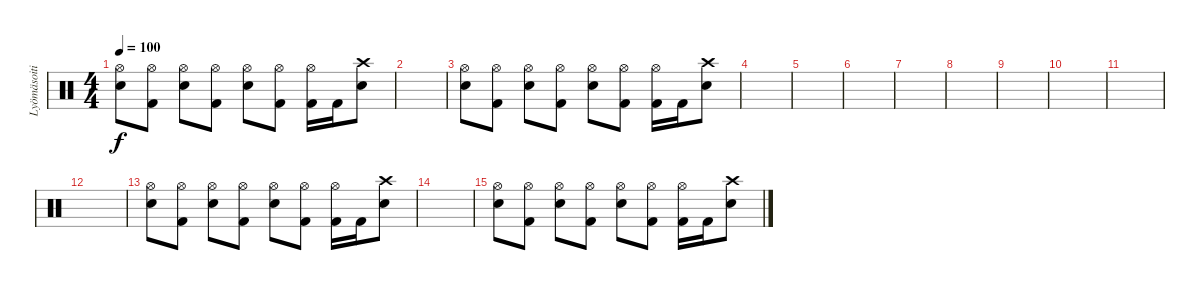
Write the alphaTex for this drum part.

\track ("Lyömäsoitin" "Lyömäsoiti") {instrument percussion}
\staff {score}
\articulation defaults
\ts (4 4)
\tempo 100
\clef neutral
\ks c
("Hi-Hat (open)" "Snare (hit) 2").8{dy f} ("Hi-Hat (open)" "Kick (hit) 2").8 ("Hi-Hat (open)" "Snare (hit) 2").8 ("Hi-Hat (open)" "Kick (hit) 2").8 ("Hi-Hat (open)" "Snare (hit) 2").8 ("Hi-Hat (open)" "Kick (hit) 2").8 ("Hi-Hat (open)" "Kick (hit) 2").16 "Kick (hit) 2".16 ("Crash high (hit)" "Snare (hit) 2").8 |
|
("Hi-Hat (open)" "Snare (hit) 2").8 ("Hi-Hat (open)" "Kick (hit) 2").8 ("Hi-Hat (open)" "Snare (hit) 2").8 ("Hi-Hat (open)" "Kick (hit) 2").8 ("Hi-Hat (open)" "Snare (hit) 2").8 ("Hi-Hat (open)" "Kick (hit) 2").8 ("Hi-Hat (open)" "Kick (hit) 2").16 "Kick (hit) 2".16 ("Crash high (hit)" "Snare (hit) 2").8 |
|
|
|
|
|
|
|
|
|
("Hi-Hat (open)" "Snare (hit) 2").8 ("Hi-Hat (open)" "Kick (hit) 2").8 ("Hi-Hat (open)" "Snare (hit) 2").8 ("Hi-Hat (open)" "Kick (hit) 2").8 ("Hi-Hat (open)" "Snare (hit) 2").8 ("Hi-Hat (open)" "Kick (hit) 2").8 ("Hi-Hat (open)" "Kick (hit) 2").16 "Kick (hit) 2".16 ("Crash high (hit)" "Snare (hit) 2").8 |
|
("Hi-Hat (open)" "Snare (hit) 2").8 ("Hi-Hat (open)" "Kick (hit) 2").8 ("Hi-Hat (open)" "Snare (hit) 2").8 ("Hi-Hat (open)" "Kick (hit) 2").8 ("Hi-Hat (open)" "Snare (hit) 2").8 ("Hi-Hat (open)" "Kick (hit) 2").8 ("Hi-Hat (open)" "Kick (hit) 2").16 "Kick (hit) 2".16 ("Crash high (hit)" "Snare (hit) 2").8
